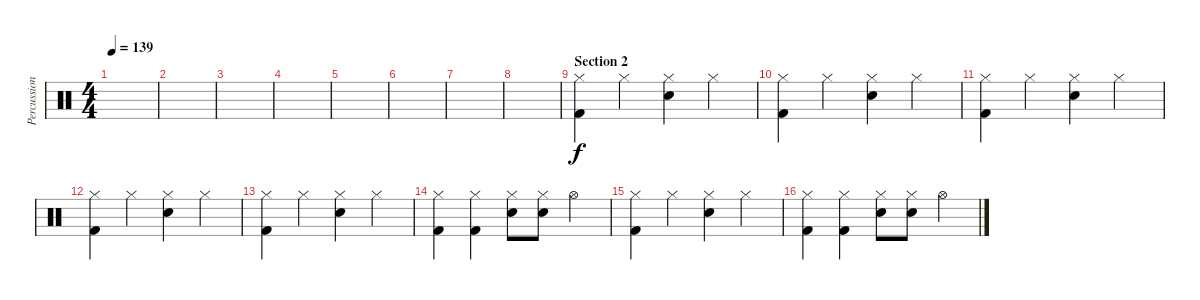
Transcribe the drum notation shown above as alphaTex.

\track ("Percussion" "Percussion") {instrument percussion}
\staff {score}
\articulation defaults
\ts (4 4)
\tempo 139
\clef neutral
\ks c
|
|
|
|
|
|
|
|
\section ("" "Section 2")
("Hi-Hat (closed)" "Kick (hit) 2").4 "Hi-Hat (closed)".4 ("Hi-Hat (closed)" "Snare (hit) 2").4 "Hi-Hat (closed)".4 |
("Hi-Hat (closed)" "Kick (hit) 2").4 "Hi-Hat (closed)".4 ("Hi-Hat (closed)" "Snare (hit) 2").4 "Hi-Hat (closed)".4 |
("Hi-Hat (closed)" "Kick (hit) 2").4 "Hi-Hat (closed)".4 ("Hi-Hat (closed)" "Snare (hit) 2").4 "Hi-Hat (closed)".4 |
("Hi-Hat (closed)" "Kick (hit) 2").4 "Hi-Hat (closed)".4 ("Hi-Hat (closed)" "Snare (hit) 2").4 "Hi-Hat (closed)".4 |
("Hi-Hat (closed)" "Kick (hit) 2").4 "Hi-Hat (closed)".4 ("Hi-Hat (closed)" "Snare (hit) 2").4 "Hi-Hat (closed)".4 |
("Hi-Hat (closed)" "Kick (hit) 2").4 ("Hi-Hat (closed)" "Kick (hit) 2").4 ("Hi-Hat (closed)" "Snare (hit) 2").8 ("Hi-Hat (closed)" "Snare (hit) 2").8 "Hi-Hat (open)".4 |
("Hi-Hat (closed)" "Kick (hit) 2").4 "Hi-Hat (closed)".4 ("Hi-Hat (closed)" "Snare (hit) 2").4 "Hi-Hat (closed)".4 |
("Hi-Hat (closed)" "Kick (hit) 2").4 ("Hi-Hat (closed)" "Kick (hit) 2").4 ("Hi-Hat (closed)" "Snare (hit) 2").8 ("Hi-Hat (closed)" "Snare (hit) 2").8 "Hi-Hat (open)".4
